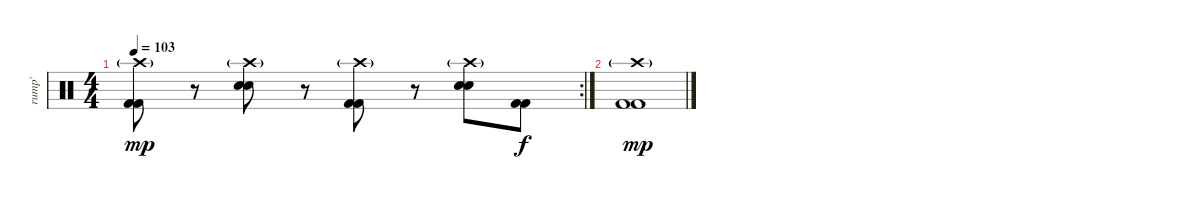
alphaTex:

\track ("rump'" "rump'") {instrument percussion}
\staff {score}
\articulation defaults
\rc 2
\ts (4 4)
\tempo 103
\clef neutral
\ks c
("Crash high (hit)"{g} "Kick (hit) 2" "Kick (hit) 2").8{dy mp} r.8 ("Crash high (hit)"{g} "Electric Snare (hit)" "Electric Snare (hit)").8 r.8 ("Crash high (hit)"{g} "Kick (hit) 2" "Kick (hit) 2").8 r.8 ("Crash high (hit)"{g} "Electric Snare (hit)" "Electric Snare (hit)").8 ("Kick (hit) 2" "Kick (hit) 2").8{dy f} |
("Crash high (hit)"{g} "Kick (hit) 2" "Kick (hit) 2").1{dy mp}
